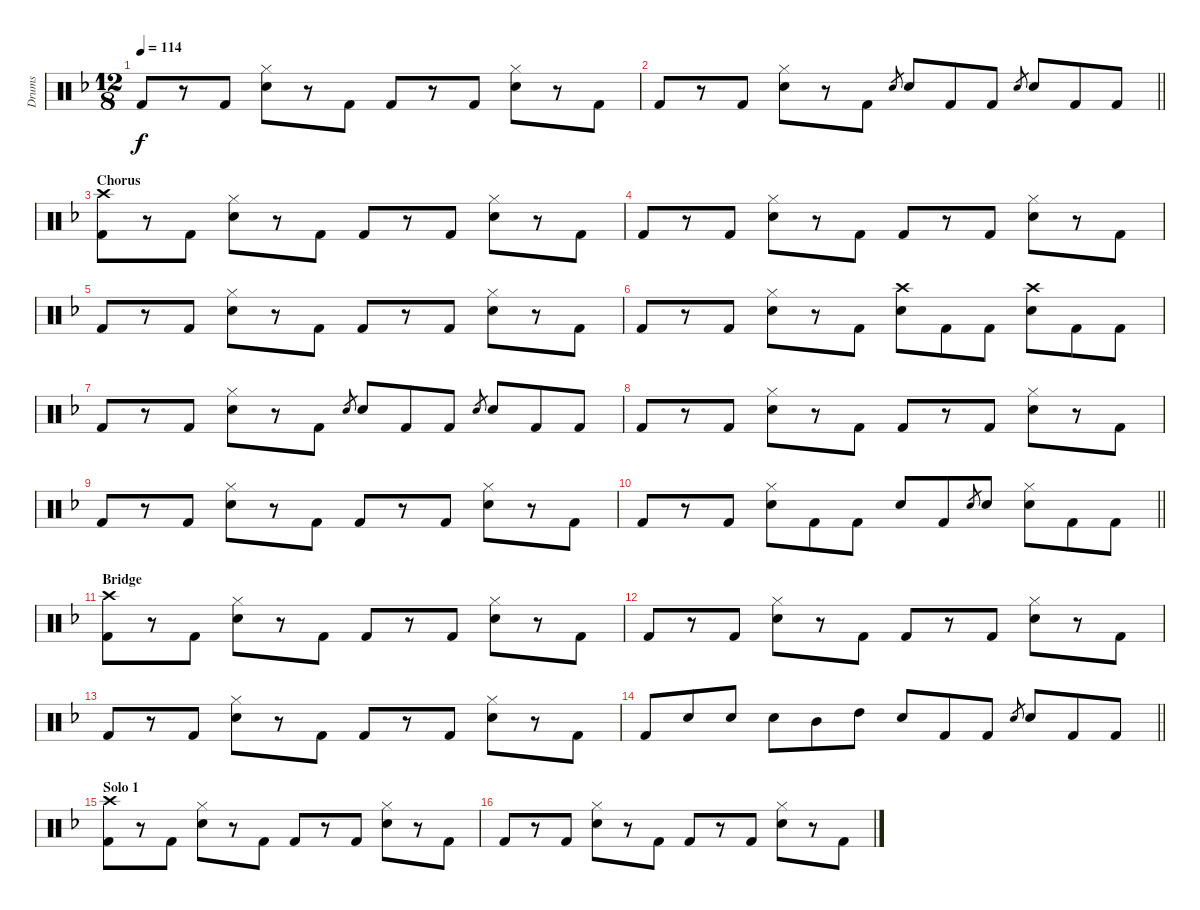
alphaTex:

\track ("Drums" "Drums") {instrument percussion}
\staff {score}
\articulation defaults
\ts (12 8)
\tempo 114
\clef neutral
\ks f "Kick (hit) 2".8{dy f}
r.8 "Kick (hit) 2".8 ("Hi-Hat (closed)" "Electric Snare (hit)").8 r.8 "Kick (hit) 2".8 "Kick (hit) 2".8 r.8 "Kick (hit) 2".8 ("Hi-Hat (closed)" "Electric Snare (hit)").8 r.8 "Kick (hit) 2".8 |
\barLineRight lightlight "Kick (hit) 2".8
r.8 "Kick (hit) 2".8 ("Hi-Hat (closed)" "Electric Snare (hit)").8 r.8 "Kick (hit) 2".8 "Electric Snare (hit)".8{gr} "Electric Snare (hit)".8 "Kick (hit) 2".8 "Kick (hit) 2".8 "Electric Snare (hit)".8{gr} "Electric Snare (hit)".8 "Kick (hit) 2".8 "Kick (hit) 2".8 |
\section ("" "Chorus")
("Crash high (hit)" "Kick (hit) 2").8 r.8 "Kick (hit) 2".8 ("Hi-Hat (closed)" "Electric Snare (hit)").8 r.8 "Kick (hit) 2".8 "Kick (hit) 2".8 r.8 "Kick (hit) 2".8 ("Hi-Hat (closed)" "Electric Snare (hit)").8 r.8 "Kick (hit) 2".8 |
"Kick (hit) 2".8 r.8 "Kick (hit) 2".8 ("Hi-Hat (closed)" "Electric Snare (hit)").8 r.8 "Kick (hit) 2".8 "Kick (hit) 2".8 r.8 "Kick (hit) 2".8 ("Hi-Hat (closed)" "Electric Snare (hit)").8 r.8 "Kick (hit) 2".8 |
"Kick (hit) 2".8 r.8 "Kick (hit) 2".8 ("Hi-Hat (closed)" "Electric Snare (hit)").8 r.8 "Kick (hit) 2".8 "Kick (hit) 2".8 r.8 "Kick (hit) 2".8 ("Hi-Hat (closed)" "Electric Snare (hit)").8 r.8 "Kick (hit) 2".8 |
"Kick (hit) 2".8 r.8 "Kick (hit) 2".8 ("Hi-Hat (closed)" "Electric Snare (hit)").8 r.8 "Kick (hit) 2".8 ("Crash high (hit)" "Electric Snare (hit)").8 "Kick (hit) 2".8 "Kick (hit) 2".8 ("Crash high (hit)" "Electric Snare (hit)").8 "Kick (hit) 2".8 "Kick (hit) 2".8 |
"Kick (hit) 2".8 r.8 "Kick (hit) 2".8 ("Hi-Hat (closed)" "Electric Snare (hit)").8 r.8 "Kick (hit) 2".8 "Electric Snare (hit)".8{gr} "Electric Snare (hit)".8 "Kick (hit) 2".8 "Kick (hit) 2".8 "Electric Snare (hit)".8{gr} "Electric Snare (hit)".8 "Kick (hit) 2".8 "Kick (hit) 2".8 |
"Kick (hit) 2".8 r.8 "Kick (hit) 2".8 ("Hi-Hat (closed)" "Electric Snare (hit)").8 r.8 "Kick (hit) 2".8 "Kick (hit) 2".8 r.8 "Kick (hit) 2".8 ("Hi-Hat (closed)" "Electric Snare (hit)").8 r.8 "Kick (hit) 2".8 |
"Kick (hit) 2".8 r.8 "Kick (hit) 2".8 ("Hi-Hat (closed)" "Electric Snare (hit)").8 r.8 "Kick (hit) 2".8 "Kick (hit) 2".8 r.8 "Kick (hit) 2".8 ("Hi-Hat (closed)" "Electric Snare (hit)").8 r.8 "Kick (hit) 2".8 |
\barLineRight lightlight "Kick (hit) 2".8
r.8 "Kick (hit) 2".8 ("Hi-Hat (closed)" "Electric Snare (hit)").8 "Kick (hit) 2".8 "Kick (hit) 2".8 "Electric Snare (hit)".8 "Kick (hit) 2".8 "Electric Snare (hit)".8{gr} "Electric Snare (hit)".8 ("Hi-Hat (closed)" "Electric Snare (hit)").8 "Kick (hit) 2".8 "Kick (hit) 2".8 |
\section ("" "Bridge")
("Crash high (hit)" "Kick (hit) 2").8 r.8 "Kick (hit) 2".8 ("Hi-Hat (closed)" "Electric Snare (hit)").8 r.8 "Kick (hit) 2".8 "Kick (hit) 2".8 r.8 "Kick (hit) 2".8 ("Hi-Hat (closed)" "Electric Snare (hit)").8 r.8 "Kick (hit) 2".8 |
"Kick (hit) 2".8 r.8 "Kick (hit) 2".8 ("Hi-Hat (closed)" "Electric Snare (hit)").8 r.8 "Kick (hit) 2".8 "Kick (hit) 2".8 r.8 "Kick (hit) 2".8 ("Hi-Hat (closed)" "Electric Snare (hit)").8 r.8 "Kick (hit) 2".8 |
"Kick (hit) 2".8 r.8 "Kick (hit) 2".8 ("Hi-Hat (closed)" "Electric Snare (hit)").8 r.8 "Kick (hit) 2".8 "Kick (hit) 2".8 r.8 "Kick (hit) 2".8 ("Hi-Hat (closed)" "Electric Snare (hit)").8 r.8 "Kick (hit) 2".8 |
\barLineRight lightlight "Kick (hit) 2".8 "Electric Snare (hit)".8 "Electric Snare (hit)".8 "Electric Snare (hit)".8 "Mid Tom (hit)".8 "High Tom (hit)".8 "Electric Snare (hit)".8 "Kick (hit) 2".8 "Kick (hit) 2".8 "Electric Snare (hit)".8{gr} "Electric Snare (hit)".8 "Kick (hit) 2".8 "Kick (hit) 2".8
|
\section ("" "Solo 1")
("Crash high (hit)" "Kick (hit) 2").8 r.8 "Kick (hit) 2".8 ("Hi-Hat (closed)" "Electric Snare (hit)").8 r.8 "Kick (hit) 2".8 "Kick (hit) 2".8 r.8 "Kick (hit) 2".8 ("Hi-Hat (closed)" "Electric Snare (hit)").8 r.8 "Kick (hit) 2".8 |
"Kick (hit) 2".8 r.8 "Kick (hit) 2".8 ("Hi-Hat (closed)" "Electric Snare (hit)").8 r.8 "Kick (hit) 2".8 "Kick (hit) 2".8 r.8 "Kick (hit) 2".8 ("Hi-Hat (closed)" "Electric Snare (hit)").8 r.8 "Kick (hit) 2".8
